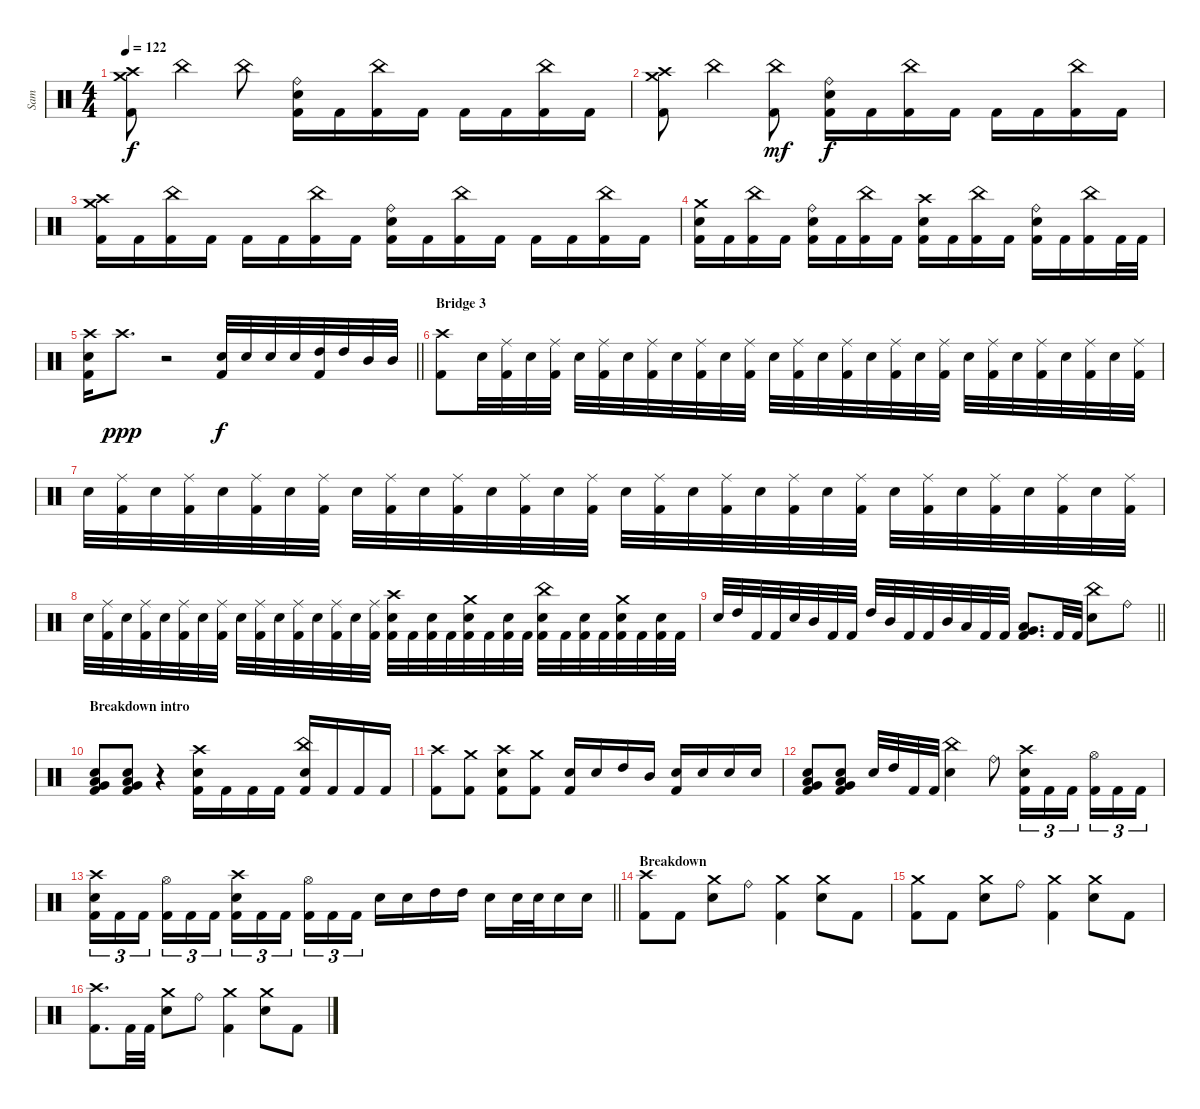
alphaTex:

\track ("Sam" "Sam") {solo instrument percussion}
\staff {score}
\articulation defaults
\ts (4 4)
\tempo 122
\clef neutral
\ks c
("Crash high (hit)" "Crash medium (hit)" "Kick (hit) 2").8{dy f} "China (hit)".4 "China (hit)".8 ("Ride (bell)" "Electric Snare (hit)" "Kick (hit) 2").16 "Kick (hit) 2".16 ("China (hit)" "Kick (hit) 2").16 "Kick (hit) 2".16 "Kick (hit) 2".16 "Kick (hit) 2".16 ("China (hit)" "Kick (hit) 2").16 "Kick (hit) 2".16 |
("Crash high (hit)" "Crash medium (hit)" "Kick (hit) 2").8 "China (hit)".4 ("China (hit)" "Kick (hit) 2").8{dy mf} ("Ride (bell)" "Electric Snare (hit)" "Kick (hit) 2").16{dy f} "Kick (hit) 2".16 ("China (hit)" "Kick (hit) 2").16 "Kick (hit) 2".16 "Kick (hit) 2".16 "Kick (hit) 2".16 ("China (hit)" "Kick (hit) 2").16 "Kick (hit) 2".16 |
("Crash high (hit)" "Crash medium (hit)" "Kick (hit) 2").16 "Kick (hit) 2".16 ("China (hit)" "Kick (hit) 2").16 "Kick (hit) 2".16 "Kick (hit) 2".16 "Kick (hit) 2".16 ("China (hit)" "Kick (hit) 2").16 "Kick (hit) 2".16 ("Ride (bell)" "Electric Snare (hit)" "Kick (hit) 2").16 "Kick (hit) 2".16 ("China (hit)" "Kick (hit) 2").16 "Kick (hit) 2".16 "Kick (hit) 2".16 "Kick (hit) 2".16 ("China (hit)" "Kick (hit) 2").16 "Kick (hit) 2".16 |
("Crash medium (hit)" "Electric Snare (hit)" "Kick (hit) 2").16 "Kick (hit) 2".16 ("China (hit)" "Kick (hit) 2").16 "Kick (hit) 2".16 ("Ride (bell)" "Electric Snare (hit)" "Kick (hit) 2").16 "Kick (hit) 2".16 ("China (hit)" "Kick (hit) 2").16 "Kick (hit) 2".16 ("Crash high (hit)" "Electric Snare (hit)" "Kick (hit) 2").16 "Kick (hit) 2".16 ("China (hit)" "Kick (hit) 2").16 "Kick (hit) 2".16 ("Ride (bell)" "Electric Snare (hit)" "Kick (hit) 2").16 "Kick (hit) 2".16 ("China (hit)" "Kick (hit) 2").16 "Kick (hit) 2".32 "Kick (hit) 2".32 |
\barLineRight lightlight
("Crash high (hit)" "Electric Snare (hit)" "Kick (hit) 2").16 "Crash high (hit)".8{d dy ppp} r.2 ("Electric Snare (hit)" "Kick (hit) 2").32{dy f} "Electric Snare (hit)".32 "Electric Snare (hit)".32 "Electric Snare (hit)".32 ("High Tom (hit)" "Kick (hit) 2").32 "High Tom (hit)".32 "Mid Tom (hit)".32 "Mid Tom (hit)".32 |
\section ("" "Bridge 3")
("Crash high (hit)" "Kick (hit) 2").8 "Electric Snare (hit)".32 ("Ride (middle)" "Kick (hit) 2").32 "Electric Snare (hit)".32 ("Ride (middle)" "Kick (hit) 2").32 "Electric Snare (hit)".32 ("Ride (middle)" "Kick (hit) 2").32 "Electric Snare (hit)".32 ("Ride (middle)" "Kick (hit) 2").32 "Electric Snare (hit)".32 ("Ride (middle)" "Kick (hit) 2").32 "Electric Snare (hit)".32 ("Ride (middle)" "Kick (hit) 2").32 "Electric Snare (hit)".32 ("Ride (middle)" "Kick (hit) 2").32 "Electric Snare (hit)".32 ("Ride (middle)" "Kick (hit) 2").32 "Electric Snare (hit)".32 ("Ride (middle)" "Kick (hit) 2").32 "Electric Snare (hit)".32 ("Ride (middle)" "Kick (hit) 2").32 "Electric Snare (hit)".32 ("Ride (middle)" "Kick (hit) 2").32 "Electric Snare (hit)".32 ("Ride (middle)" "Kick (hit) 2").32 "Electric Snare (hit)".32 ("Ride (middle)" "Kick (hit) 2").32 "Electric Snare (hit)".32 ("Ride (middle)" "Kick (hit) 2").32 |
"Electric Snare (hit)".32 ("Ride (middle)" "Kick (hit) 2").32 "Electric Snare (hit)".32 ("Ride (middle)" "Kick (hit) 2").32 "Electric Snare (hit)".32 ("Ride (middle)" "Kick (hit) 2").32 "Electric Snare (hit)".32 ("Ride (middle)" "Kick (hit) 2").32 "Electric Snare (hit)".32 ("Ride (middle)" "Kick (hit) 2").32 "Electric Snare (hit)".32 ("Ride (middle)" "Kick (hit) 2").32 "Electric Snare (hit)".32 ("Ride (middle)" "Kick (hit) 2").32 "Electric Snare (hit)".32 ("Ride (middle)" "Kick (hit) 2").32 "Electric Snare (hit)".32 ("Ride (middle)" "Kick (hit) 2").32 "Electric Snare (hit)".32 ("Ride (middle)" "Kick (hit) 2").32 "Electric Snare (hit)".32 ("Ride (middle)" "Kick (hit) 2").32 "Electric Snare (hit)".32 ("Ride (middle)" "Kick (hit) 2").32 "Electric Snare (hit)".32 ("Ride (middle)" "Kick (hit) 2").32 "Electric Snare (hit)".32 ("Ride (middle)" "Kick (hit) 2").32 "Electric Snare (hit)".32 ("Ride (middle)" "Kick (hit) 2").32 "Electric Snare (hit)".32 ("Ride (middle)" "Kick (hit) 2").32 |
"Electric Snare (hit)".32 ("Ride (middle)" "Kick (hit) 2").32 "Electric Snare (hit)".32 ("Ride (middle)" "Kick (hit) 2").32 "Electric Snare (hit)".32 ("Ride (middle)" "Kick (hit) 2").32 "Electric Snare (hit)".32 ("Ride (middle)" "Kick (hit) 2").32 "Electric Snare (hit)".32 ("Ride (middle)" "Kick (hit) 2").32 "Electric Snare (hit)".32 ("Ride (middle)" "Kick (hit) 2").32 "Electric Snare (hit)".32 ("Ride (middle)" "Kick (hit) 2").32 "Electric Snare (hit)".32 ("Ride (middle)" "Kick (hit) 2").32 ("Electric Snare (hit)" "Crash high (hit)" "Kick (hit) 2").32 "Kick (hit) 2".32 ("Electric Snare (hit)" "Kick (hit) 2").32 "Kick (hit) 2".32 ("Electric Snare (hit)" "Crash medium (hit)" "Kick (hit) 2").32 "Kick (hit) 2".32 ("Electric Snare (hit)" "Kick (hit) 2").32 "Kick (hit) 2".32 ("Electric Snare (hit)" "China (hit)" "Kick (hit) 2").32 "Kick (hit) 2".32 ("Electric Snare (hit)" "Kick (hit) 2").32 "Kick (hit) 2".32 ("Electric Snare (hit)" "Crash medium (hit)" "Kick (hit) 2").32 "Kick (hit) 2".32 ("Electric Snare (hit)" "Kick (hit) 2").32 "Kick (hit) 2".32 |
\barLineRight lightlight "Electric Snare (hit)".32 "High Tom (hit)".32 "Kick (hit) 2".32 "Kick (hit) 2".32 "Electric Snare (hit)".32 "Mid Tom (hit)".32 "Kick (hit) 2".32 "Kick (hit) 2".32 "High Tom (hit)".32 "Mid Tom (hit)".32 "Kick (hit) 2".32 "Kick (hit) 2".32 "Mid Tom (hit)".32 "Low Tom (hit)".32 "Kick (hit) 2".32 "Kick (hit) 2".32
("Very Low Tom (hit)" "Low Floor Tom (hit)" "Kick (hit) 2").8{d} "Kick (hit) 2".32 "Kick (hit) 2".32 ("China (hit)" "Electric Snare (hit)").8 "Ride (bell)".8 |
\section ("" "Breakdown intro")
("Electric Snare (hit)" "Very Low Tom (hit)" "Low Floor Tom (hit)" "Kick (hit) 2").8 ("Electric Snare (hit)" "Very Low Tom (hit)" "Low Floor Tom (hit)" "Kick (hit) 2").8 r.4 ("Crash high (hit)" "Electric Snare (hit)" "Kick (hit) 2").16 "Kick (hit) 2".16 "Kick (hit) 2".16 "Kick (hit) 2".16 ("China (hit)" "Electric Snare (hit)" "Kick (hit) 2").16 "Kick (hit) 2".16 "Kick (hit) 2".16 "Kick (hit) 2".16 |
("Crash high (hit)" "Kick (hit) 2").8 ("Crash medium (hit)" "Kick (hit) 2").8 ("Crash high (hit)" "Electric Snare (hit)" "Kick (hit) 2").8 ("Crash medium (hit)" "Kick (hit) 2").8 ("Electric Snare (hit)" "Kick (hit) 2").16 "Electric Snare (hit)".16 "High Tom (hit)".16 "Mid Tom (hit)".16 ("Electric Snare (hit)" "Kick (hit) 2").16 "Electric Snare (hit)".16 "Electric Snare (hit)".16 "Electric Snare (hit)".16 |
("Electric Snare (hit)" "Very Low Tom (hit)" "Low Floor Tom (hit)" "Kick (hit) 2").8 ("Electric Snare (hit)" "Very Low Tom (hit)" "Low Floor Tom (hit)" "Kick (hit) 2").8 "Electric Snare (hit)".32 "High Tom (hit)".32 "Kick (hit) 2".32 "Kick (hit) 2".32 ("China (hit)" "Electric Snare (hit)").4 "Ride (bell)".8 ("Crash high (hit)" "Electric Snare (hit)" "Kick (hit) 2").16{tu (3 2)} "Kick (hit) 2".16{tu (3 2)} "Kick (hit) 2".16{tu (3 2) beam splitsecondary} ("Hi-Hat (open)" "Kick (hit) 2").16{tu (3 2)} "Kick (hit) 2".16{tu (3 2)} "Kick (hit) 2".16{tu (3 2)} |
\barLineRight lightlight
("Crash high (hit)" "Electric Snare (hit)" "Kick (hit) 2").16{tu (3 2)} "Kick (hit) 2".16{tu (3 2)} "Kick (hit) 2".16{tu (3 2) beam splitsecondary} ("Hi-Hat (open)" "Kick (hit) 2").16{tu (3 2)} "Kick (hit) 2".16{tu (3 2)} "Kick (hit) 2".16{tu (3 2)} ("Crash high (hit)" "Electric Snare (hit)" "Kick (hit) 2").16{tu (3 2)} "Kick (hit) 2".16{tu (3 2)} "Kick (hit) 2".16{tu (3 2) beam splitsecondary} ("Hi-Hat (open)" "Kick (hit) 2").16{tu (3 2)} "Kick (hit) 2".16{tu (3 2)} "Kick (hit) 2".16{tu (3 2)} "Electric Snare (hit)".16 "Electric Snare (hit)".16 "High Tom (hit)".16 "High Tom (hit)".16 "Electric Snare (hit)".16 "Electric Snare (hit)".32 "Electric Snare (hit)".32 "Electric Snare (hit)".16 "Electric Snare (hit)".16 |
\section ("" "Breakdown")
("Crash high (hit)" "Kick (hit) 2").8 "Kick (hit) 2".8 ("Crash medium (hit)" "Electric Snare (hit)").8 "Ride (bell)".8 ("Crash medium (hit)" "Kick (hit) 2").4 ("Crash medium (hit)" "Electric Snare (hit)").8 "Kick (hit) 2".8 |
("Crash medium (hit)" "Kick (hit) 2").8 "Kick (hit) 2".8 ("Crash medium (hit)" "Electric Snare (hit)").8 "Ride (bell)".8 ("Crash medium (hit)" "Kick (hit) 2").4 ("Crash medium (hit)" "Electric Snare (hit)").8 "Kick (hit) 2".8 |
("Crash high (hit)" "Kick (hit) 2").8{d} "Kick (hit) 2".32 "Kick (hit) 2".32 ("Crash medium (hit)" "Electric Snare (hit)").8 "Ride (bell)".8 ("Crash medium (hit)" "Kick (hit) 2").4 ("Crash medium (hit)" "Electric Snare (hit)").8 "Kick (hit) 2".8
